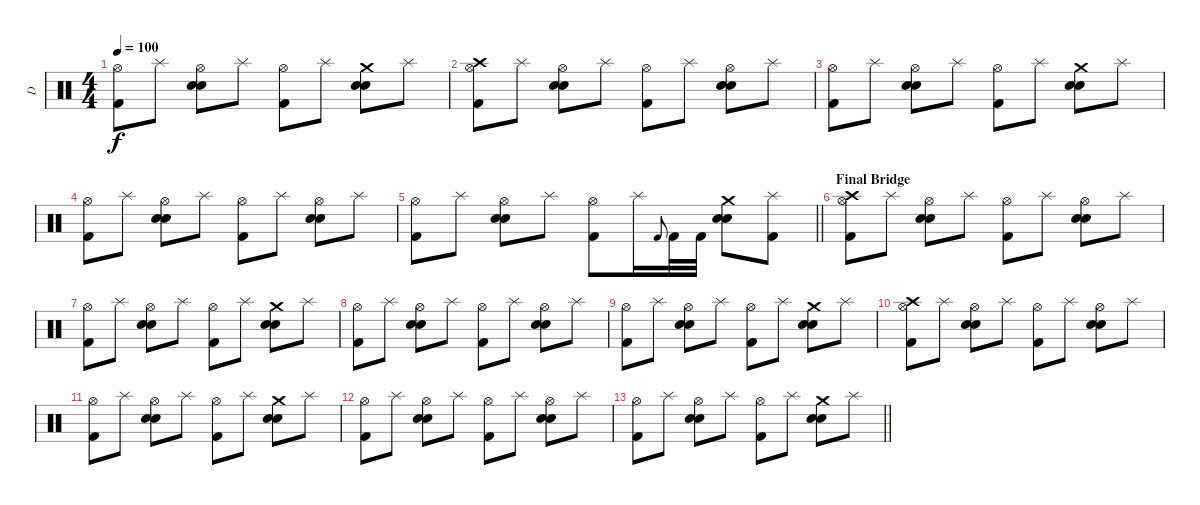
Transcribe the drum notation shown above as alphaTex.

\track ("D" "D") {instrument percussion}
\staff {score}
\articulation defaults
\ts (4 4)
\tempo 100
\clef neutral
\ks c
("Kick (hit) 2" "Hi-Hat (open)").8{dy f} "Splash (hit)".8 ("Electric Snare (hit)" "Electric Snare (hit)" "Hi-Hat (open)").8 "Splash (hit)".8 ("Kick (hit) 2" "Hi-Hat (open)").8 "Splash (hit)".8 ("Crash medium (hit)" "Electric Snare (hit)" "Electric Snare (hit)").8 "Splash (hit)".8 |
("Crash high (hit)" "Kick (hit) 2" "Hi-Hat (open)").8 "Splash (hit)".8 ("Electric Snare (hit)" "Electric Snare (hit)" "Hi-Hat (open)").8 "Splash (hit)".8 ("Kick (hit) 2" "Hi-Hat (open)").8 "Splash (hit)".8 ("Electric Snare (hit)" "Electric Snare (hit)" "Hi-Hat (open)").8 "Splash (hit)".8 |
("Kick (hit) 2" "Hi-Hat (open)").8 "Splash (hit)".8 ("Electric Snare (hit)" "Electric Snare (hit)" "Hi-Hat (open)").8 "Splash (hit)".8 ("Kick (hit) 2" "Hi-Hat (open)").8 "Splash (hit)".8 ("Crash medium (hit)" "Electric Snare (hit)" "Electric Snare (hit)").8 "Splash (hit)".8 |
("Kick (hit) 2" "Hi-Hat (open)").8 "Splash (hit)".8 ("Electric Snare (hit)" "Electric Snare (hit)" "Hi-Hat (open)").8 "Splash (hit)".8 ("Kick (hit) 2" "Hi-Hat (open)").8 "Splash (hit)".8 ("Electric Snare (hit)" "Electric Snare (hit)" "Hi-Hat (open)").8 "Splash (hit)".8 |
\barLineRight lightlight
("Kick (hit) 2" "Hi-Hat (open)").8 "Splash (hit)".8 ("Electric Snare (hit)" "Electric Snare (hit)" "Hi-Hat (open)").8 "Splash (hit)".8 ("Kick (hit) 2" "Hi-Hat (open)").8 "Splash (hit)".16 "Kick (hit) 2".8{gr onbeat} "Kick (hit) 2".32 "Kick (hit) 2".32 ("Crash medium (hit)" "Electric Snare (hit)" "Electric Snare (hit)").8 ("Kick (hit) 2" "Splash (hit)").8 |
\section ("" "Final Bridge")
("Crash high (hit)" "Kick (hit) 2" "Hi-Hat (open)").8 "Splash (hit)".8 ("Electric Snare (hit)" "Electric Snare (hit)" "Hi-Hat (open)").8 "Splash (hit)".8 ("Kick (hit) 2" "Hi-Hat (open)").8 "Splash (hit)".8 ("Electric Snare (hit)" "Electric Snare (hit)" "Hi-Hat (open)").8 "Splash (hit)".8 |
("Kick (hit) 2" "Hi-Hat (open)").8 "Splash (hit)".8 ("Electric Snare (hit)" "Electric Snare (hit)" "Hi-Hat (open)").8 "Splash (hit)".8 ("Kick (hit) 2" "Hi-Hat (open)").8 "Splash (hit)".8 ("Crash medium (hit)" "Electric Snare (hit)" "Electric Snare (hit)").8 "Splash (hit)".8 |
("Kick (hit) 2" "Hi-Hat (open)").8 "Splash (hit)".8 ("Electric Snare (hit)" "Electric Snare (hit)" "Hi-Hat (open)").8 "Splash (hit)".8 ("Kick (hit) 2" "Hi-Hat (open)").8 "Splash (hit)".8 ("Electric Snare (hit)" "Electric Snare (hit)" "Hi-Hat (open)").8 "Splash (hit)".8 |
("Kick (hit) 2" "Hi-Hat (open)").8 "Splash (hit)".8 ("Electric Snare (hit)" "Electric Snare (hit)" "Hi-Hat (open)").8 "Splash (hit)".8 ("Kick (hit) 2" "Hi-Hat (open)").8 "Splash (hit)".8 ("Crash medium (hit)" "Electric Snare (hit)" "Electric Snare (hit)").8 "Splash (hit)".8 |
("Crash high (hit)" "Kick (hit) 2" "Hi-Hat (open)").8 "Splash (hit)".8 ("Electric Snare (hit)" "Electric Snare (hit)" "Hi-Hat (open)").8 "Splash (hit)".8 ("Kick (hit) 2" "Hi-Hat (open)").8 "Splash (hit)".8 ("Electric Snare (hit)" "Electric Snare (hit)" "Hi-Hat (open)").8 "Splash (hit)".8 |
("Kick (hit) 2" "Hi-Hat (open)").8 "Splash (hit)".8 ("Electric Snare (hit)" "Electric Snare (hit)" "Hi-Hat (open)").8 "Splash (hit)".8 ("Kick (hit) 2" "Hi-Hat (open)").8 "Splash (hit)".8 ("Crash medium (hit)" "Electric Snare (hit)" "Electric Snare (hit)").8 "Splash (hit)".8 |
("Kick (hit) 2" "Hi-Hat (open)").8 "Splash (hit)".8 ("Electric Snare (hit)" "Electric Snare (hit)" "Hi-Hat (open)").8 "Splash (hit)".8 ("Kick (hit) 2" "Hi-Hat (open)").8 "Splash (hit)".8 ("Electric Snare (hit)" "Electric Snare (hit)" "Hi-Hat (open)").8 "Splash (hit)".8 |
\barLineRight lightlight
("Kick (hit) 2" "Hi-Hat (open)").8 "Splash (hit)".8 ("Electric Snare (hit)" "Electric Snare (hit)" "Hi-Hat (open)").8 "Splash (hit)".8 ("Kick (hit) 2" "Hi-Hat (open)").8 "Splash (hit)".8 ("Crash medium (hit)" "Electric Snare (hit)" "Electric Snare (hit)").8 "Splash (hit)".8
